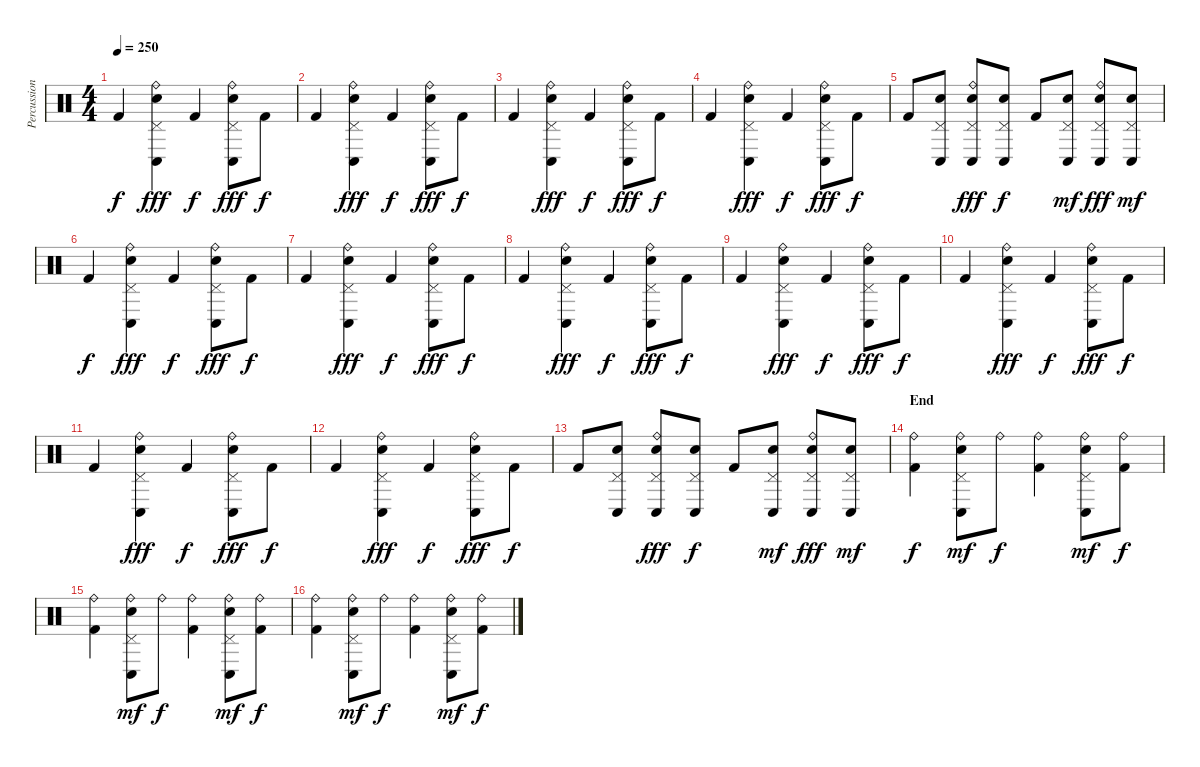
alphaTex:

\track ("Percussion" "Percussion") {instrument percussion}
\staff {score}
\articulation defaults
\ts (4 4)
\tempo 250
\clef neutral
\ks c "Kick (hit) 2".4{dy f}
("Ride (bell)" "Pedal Hi-Hat (hit)" "Conga low (hit)" "Electric Snare (hit)").4{dy fff} "Kick (hit) 2".4{dy f} ("Ride (bell)" "Pedal Hi-Hat (hit)" "Conga low (hit)" "Electric Snare (hit)").8{dy fff} "Kick (hit) 2".8{dy f} |
"Kick (hit) 2".4 ("Ride (bell)" "Pedal Hi-Hat (hit)" "Conga low (hit)" "Electric Snare (hit)").4{dy fff} "Kick (hit) 2".4{dy f} ("Ride (bell)" "Pedal Hi-Hat (hit)" "Conga low (hit)" "Electric Snare (hit)").8{dy fff} "Kick (hit) 2".8{dy f} |
"Kick (hit) 2".4 ("Ride (bell)" "Pedal Hi-Hat (hit)" "Conga low (hit)" "Electric Snare (hit)").4{dy fff} "Kick (hit) 2".4{dy f} ("Ride (bell)" "Pedal Hi-Hat (hit)" "Conga low (hit)" "Electric Snare (hit)").8{dy fff} "Kick (hit) 2".8{dy f} |
"Kick (hit) 2".4 ("Ride (bell)" "Pedal Hi-Hat (hit)" "Conga low (hit)" "Electric Snare (hit)").4{dy fff} "Kick (hit) 2".4{dy f} ("Ride (bell)" "Pedal Hi-Hat (hit)" "Conga low (hit)" "Electric Snare (hit)").8{dy fff} "Kick (hit) 2".8{dy f} |
"Kick (hit) 2".8 ("Pedal Hi-Hat (hit)" "Conga low (hit)" "Electric Snare (hit)").8 ("Ride (bell)" "Pedal Hi-Hat (hit)" "Conga low (hit)" "Electric Snare (hit)").8{dy fff} ("Pedal Hi-Hat (hit)" "Conga low (hit)" "Electric Snare (hit)").8{dy f} "Kick (hit) 2".8 ("Pedal Hi-Hat (hit)" "Conga low (hit)" "Electric Snare (hit)").8{dy mf} ("Ride (bell)" "Pedal Hi-Hat (hit)" "Conga low (hit)" "Electric Snare (hit)").8{dy fff} ("Pedal Hi-Hat (hit)" "Conga low (hit)" "Electric Snare (hit)").8{dy mf} |
"Kick (hit) 2".4{dy f} ("Ride (bell)" "Pedal Hi-Hat (hit)" "Conga low (hit)" "Electric Snare (hit)").4{dy fff} "Kick (hit) 2".4{dy f} ("Ride (bell)" "Pedal Hi-Hat (hit)" "Conga low (hit)" "Electric Snare (hit)").8{dy fff} "Kick (hit) 2".8{dy f} |
"Kick (hit) 2".4 ("Ride (bell)" "Pedal Hi-Hat (hit)" "Conga low (hit)" "Electric Snare (hit)").4{dy fff} "Kick (hit) 2".4{dy f} ("Ride (bell)" "Pedal Hi-Hat (hit)" "Conga low (hit)" "Electric Snare (hit)").8{dy fff} "Kick (hit) 2".8{dy f} |
"Kick (hit) 2".4 ("Ride (bell)" "Pedal Hi-Hat (hit)" "Conga low (hit)" "Electric Snare (hit)").4{dy fff} "Kick (hit) 2".4{dy f} ("Ride (bell)" "Pedal Hi-Hat (hit)" "Conga low (hit)" "Electric Snare (hit)").8{dy fff} "Kick (hit) 2".8{dy f} |
"Kick (hit) 2".4 ("Ride (bell)" "Pedal Hi-Hat (hit)" "Conga low (hit)" "Electric Snare (hit)").4{dy fff} "Kick (hit) 2".4{dy f} ("Ride (bell)" "Pedal Hi-Hat (hit)" "Conga low (hit)" "Electric Snare (hit)").8{dy fff} "Kick (hit) 2".8{dy f} |
"Kick (hit) 2".4 ("Ride (bell)" "Pedal Hi-Hat (hit)" "Conga low (hit)" "Electric Snare (hit)").4{dy fff} "Kick (hit) 2".4{dy f} ("Ride (bell)" "Pedal Hi-Hat (hit)" "Conga low (hit)" "Electric Snare (hit)").8{dy fff} "Kick (hit) 2".8{dy f} |
"Kick (hit) 2".4 ("Ride (bell)" "Pedal Hi-Hat (hit)" "Conga low (hit)" "Electric Snare (hit)").4{dy fff} "Kick (hit) 2".4{dy f} ("Ride (bell)" "Pedal Hi-Hat (hit)" "Conga low (hit)" "Electric Snare (hit)").8{dy fff} "Kick (hit) 2".8{dy f} |
"Kick (hit) 2".4 ("Ride (bell)" "Pedal Hi-Hat (hit)" "Conga low (hit)" "Electric Snare (hit)").4{dy fff} "Kick (hit) 2".4{dy f} ("Ride (bell)" "Pedal Hi-Hat (hit)" "Conga low (hit)" "Electric Snare (hit)").8{dy fff} "Kick (hit) 2".8{dy f} |
"Kick (hit) 2".8 ("Pedal Hi-Hat (hit)" "Conga low (hit)" "Electric Snare (hit)").8 ("Ride (bell)" "Pedal Hi-Hat (hit)" "Conga low (hit)" "Electric Snare (hit)").8{dy fff} ("Pedal Hi-Hat (hit)" "Conga low (hit)" "Electric Snare (hit)").8{dy f} "Kick (hit) 2".8 ("Pedal Hi-Hat (hit)" "Conga low (hit)" "Electric Snare (hit)").8{dy mf} ("Ride (bell)" "Pedal Hi-Hat (hit)" "Conga low (hit)" "Electric Snare (hit)").8{dy fff} ("Pedal Hi-Hat (hit)" "Conga low (hit)" "Electric Snare (hit)").8{dy mf} |
\section ("" "End")
("Ride (bell)" "Kick (hit) 2").4{dy f} ("Ride (bell)" "Pedal Hi-Hat (hit)" "Conga low (hit)" "Electric Snare (hit)").8{dy mf} "Ride (bell)".8{dy f} ("Ride (bell)" "Kick (hit) 2").4 ("Ride (bell)" "Pedal Hi-Hat (hit)" "Conga low (hit)" "Electric Snare (hit)").8{dy mf} ("Ride (bell)" "Kick (hit) 2").8{dy f} |
("Ride (bell)" "Kick (hit) 2").4 ("Ride (bell)" "Pedal Hi-Hat (hit)" "Conga low (hit)" "Electric Snare (hit)").8{dy mf} "Ride (bell)".8{dy f} ("Ride (bell)" "Kick (hit) 2").4 ("Ride (bell)" "Pedal Hi-Hat (hit)" "Conga low (hit)" "Electric Snare (hit)").8{dy mf} ("Ride (bell)" "Kick (hit) 2").8{dy f} |
("Ride (bell)" "Kick (hit) 2").4 ("Ride (bell)" "Pedal Hi-Hat (hit)" "Conga low (hit)" "Electric Snare (hit)").8{dy mf} "Ride (bell)".8{dy f} ("Ride (bell)" "Kick (hit) 2").4 ("Ride (bell)" "Pedal Hi-Hat (hit)" "Conga low (hit)" "Electric Snare (hit)").8{dy mf} ("Ride (bell)" "Kick (hit) 2").8{dy f}
